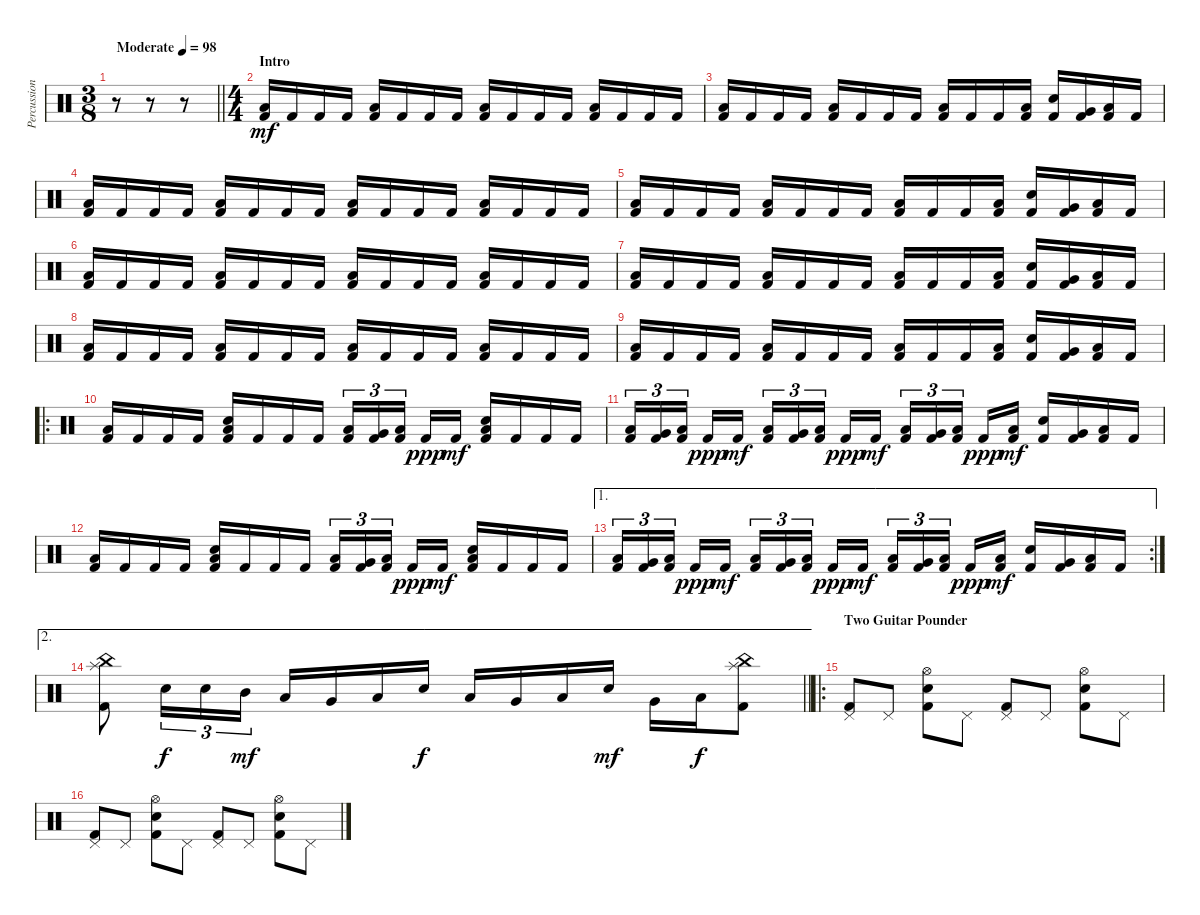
\track ("Percussion" "Percussion") {instrument percussion}
\staff {score}
\articulation defaults
\ts (3 8)
\tempo (98 "Moderate")
\clef neutral
\barLineRight lightlight
\ks c
r.8{dy mf} r.8 r.8 |
\ts (4 4)
\section ("" "Intro")
("Low Floor Tom (hit)" "Kick (hit) 2").16 "Kick (hit) 2".16 "Kick (hit) 2".16 "Kick (hit) 2".16 ("Low Floor Tom (hit)" "Kick (hit) 2").16 "Kick (hit) 2".16 "Kick (hit) 2".16 "Kick (hit) 2".16 ("Low Floor Tom (hit)" "Kick (hit) 2").16 "Kick (hit) 2".16 "Kick (hit) 2".16 "Kick (hit) 2".16 ("Low Floor Tom (hit)" "Kick (hit) 2").16 "Kick (hit) 2".16 "Kick (hit) 2".16 "Kick (hit) 2".16 |
("Low Floor Tom (hit)" "Kick (hit) 2").16 "Kick (hit) 2".16 "Kick (hit) 2".16 "Kick (hit) 2".16 ("Low Floor Tom (hit)" "Kick (hit) 2").16 "Kick (hit) 2".16 "Kick (hit) 2".16 "Kick (hit) 2".16 ("Low Floor Tom (hit)" "Kick (hit) 2").16 "Kick (hit) 2".16 "Kick (hit) 2".16 ("Low Floor Tom (hit)" "Kick (hit) 2").16 ("Snare (hit) 2" "Kick (hit) 2").16 ("Very Low Tom (hit)" "Kick (hit) 2").16 ("Low Floor Tom (hit)" "Kick (hit) 2").16 "Kick (hit) 2".16 |
("Low Floor Tom (hit)" "Kick (hit) 2").16 "Kick (hit) 2".16 "Kick (hit) 2".16 "Kick (hit) 2".16 ("Low Floor Tom (hit)" "Kick (hit) 2").16 "Kick (hit) 2".16 "Kick (hit) 2".16 "Kick (hit) 2".16 ("Low Floor Tom (hit)" "Kick (hit) 2").16 "Kick (hit) 2".16 "Kick (hit) 2".16 "Kick (hit) 2".16 ("Low Floor Tom (hit)" "Kick (hit) 2").16 "Kick (hit) 2".16 "Kick (hit) 2".16 "Kick (hit) 2".16 |
("Low Floor Tom (hit)" "Kick (hit) 2").16 "Kick (hit) 2".16 "Kick (hit) 2".16 "Kick (hit) 2".16 ("Low Floor Tom (hit)" "Kick (hit) 2").16 "Kick (hit) 2".16 "Kick (hit) 2".16 "Kick (hit) 2".16 ("Low Floor Tom (hit)" "Kick (hit) 2").16 "Kick (hit) 2".16 "Kick (hit) 2".16 ("Low Floor Tom (hit)" "Kick (hit) 2").16 ("Snare (hit) 2" "Kick (hit) 2").16 ("Very Low Tom (hit)" "Kick (hit) 2").16 ("Low Floor Tom (hit)" "Kick (hit) 2").16 "Kick (hit) 2".16 |
("Low Floor Tom (hit)" "Kick (hit) 2").16 "Kick (hit) 2".16 "Kick (hit) 2".16 "Kick (hit) 2".16 ("Low Floor Tom (hit)" "Kick (hit) 2").16 "Kick (hit) 2".16 "Kick (hit) 2".16 "Kick (hit) 2".16 ("Low Floor Tom (hit)" "Kick (hit) 2").16 "Kick (hit) 2".16 "Kick (hit) 2".16 "Kick (hit) 2".16 ("Low Floor Tom (hit)" "Kick (hit) 2").16 "Kick (hit) 2".16 "Kick (hit) 2".16 "Kick (hit) 2".16 |
("Low Floor Tom (hit)" "Kick (hit) 2").16 "Kick (hit) 2".16 "Kick (hit) 2".16 "Kick (hit) 2".16 ("Low Floor Tom (hit)" "Kick (hit) 2").16 "Kick (hit) 2".16 "Kick (hit) 2".16 "Kick (hit) 2".16 ("Low Floor Tom (hit)" "Kick (hit) 2").16 "Kick (hit) 2".16 "Kick (hit) 2".16 ("Low Floor Tom (hit)" "Kick (hit) 2").16 ("Snare (hit) 2" "Kick (hit) 2").16 ("Very Low Tom (hit)" "Kick (hit) 2").16 ("Low Floor Tom (hit)" "Kick (hit) 2").16 "Kick (hit) 2".16 |
("Low Floor Tom (hit)" "Kick (hit) 2").16 "Kick (hit) 2".16 "Kick (hit) 2".16 "Kick (hit) 2".16 ("Low Floor Tom (hit)" "Kick (hit) 2").16 "Kick (hit) 2".16 "Kick (hit) 2".16 "Kick (hit) 2".16 ("Low Floor Tom (hit)" "Kick (hit) 2").16 "Kick (hit) 2".16 "Kick (hit) 2".16 "Kick (hit) 2".16 ("Low Floor Tom (hit)" "Kick (hit) 2").16 "Kick (hit) 2".16 "Kick (hit) 2".16 "Kick (hit) 2".16 |
("Low Floor Tom (hit)" "Kick (hit) 2").16 "Kick (hit) 2".16 "Kick (hit) 2".16 "Kick (hit) 2".16 ("Low Floor Tom (hit)" "Kick (hit) 2").16 "Kick (hit) 2".16 "Kick (hit) 2".16 "Kick (hit) 2".16 ("Low Floor Tom (hit)" "Kick (hit) 2").16 "Kick (hit) 2".16 "Kick (hit) 2".16 ("Low Floor Tom (hit)" "Kick (hit) 2").16 ("Snare (hit) 2" "Kick (hit) 2").16 ("Very Low Tom (hit)" "Kick (hit) 2").16 ("Low Floor Tom (hit)" "Kick (hit) 2").16 "Kick (hit) 2".16 |
\ro
("Low Floor Tom (hit)" "Kick (hit) 2").16 "Kick (hit) 2".16 "Kick (hit) 2".16 "Kick (hit) 2".16 ("Snare (hit) 2" "Low Floor Tom (hit)" "Kick (hit) 2").16 "Kick (hit) 2".16 "Kick (hit) 2".16 "Kick (hit) 2".16 ("Low Tom (hit)" "Kick (hit) 2").16{tu (3 2)} ("Very Low Tom (hit)" "Kick (hit) 2").16{tu (3 2)} ("Low Floor Tom (hit)" "Kick (hit) 2").16{tu (3 2) beam splitsecondary} "Kick (hit) 2".16{dy ppp} "Kick (hit) 2".16{dy mf} ("Snare (hit) 2" "Low Floor Tom (hit)" "Kick (hit) 2").16 "Kick (hit) 2".16 "Kick (hit) 2".16 "Kick (hit) 2".16 |
("Low Tom (hit)" "Kick (hit) 2").16{tu (3 2)} ("Very Low Tom (hit)" "Kick (hit) 2").16{tu (3 2)} ("Low Floor Tom (hit)" "Kick (hit) 2").16{tu (3 2) beam splitsecondary} "Kick (hit) 2".16{dy ppp} "Kick (hit) 2".16{dy mf} ("Low Tom (hit)" "Kick (hit) 2").16{tu (3 2)} ("Very Low Tom (hit)" "Kick (hit) 2").16{tu (3 2)} ("Low Floor Tom (hit)" "Kick (hit) 2").16{tu (3 2) beam splitsecondary} "Kick (hit) 2".16{dy ppp} "Kick (hit) 2".16{dy mf} ("Low Tom (hit)" "Kick (hit) 2").16{tu (3 2)} ("Very Low Tom (hit)" "Kick (hit) 2").16{tu (3 2)} ("Low Floor Tom (hit)" "Kick (hit) 2").16{tu (3 2) beam splitsecondary} "Kick (hit) 2".16{dy ppp} ("Low Floor Tom (hit)" "Kick (hit) 2").16{dy mf} ("Snare (hit) 2" "Kick (hit) 2").16 ("Very Low Tom (hit)" "Kick (hit) 2").16 ("Low Floor Tom (hit)" "Kick (hit) 2").16 "Kick (hit) 2".16 |
("Low Floor Tom (hit)" "Kick (hit) 2").16 "Kick (hit) 2".16 "Kick (hit) 2".16 "Kick (hit) 2".16 ("Snare (hit) 2" "Low Floor Tom (hit)" "Kick (hit) 2").16 "Kick (hit) 2".16 "Kick (hit) 2".16 "Kick (hit) 2".16 ("Low Tom (hit)" "Kick (hit) 2").16{tu (3 2)} ("Very Low Tom (hit)" "Kick (hit) 2").16{tu (3 2)} ("Low Floor Tom (hit)" "Kick (hit) 2").16{tu (3 2) beam splitsecondary} "Kick (hit) 2".16{dy ppp} "Kick (hit) 2".16{dy mf} ("Snare (hit) 2" "Low Floor Tom (hit)" "Kick (hit) 2").16 "Kick (hit) 2".16 "Kick (hit) 2".16 "Kick (hit) 2".16 |
\ae 1
\rc 2
("Low Tom (hit)" "Kick (hit) 2").16{tu (3 2)} ("Very Low Tom (hit)" "Kick (hit) 2").16{tu (3 2)} ("Low Floor Tom (hit)" "Kick (hit) 2").16{tu (3 2) beam splitsecondary} "Kick (hit) 2".16{dy ppp} "Kick (hit) 2".16{dy mf} ("Low Tom (hit)" "Kick (hit) 2").16{tu (3 2)} ("Very Low Tom (hit)" "Kick (hit) 2").16{tu (3 2)} ("Low Floor Tom (hit)" "Kick (hit) 2").16{tu (3 2) beam splitsecondary} "Kick (hit) 2".16{dy ppp} "Kick (hit) 2".16{dy mf} ("Low Tom (hit)" "Kick (hit) 2").16{tu (3 2)} ("Very Low Tom (hit)" "Kick (hit) 2").16{tu (3 2)} ("Low Floor Tom (hit)" "Kick (hit) 2").16{tu (3 2) beam splitsecondary} "Kick (hit) 2".16{dy ppp} ("Low Floor Tom (hit)" "Kick (hit) 2").16{dy mf} ("Snare (hit) 2" "Kick (hit) 2").16 ("Very Low Tom (hit)" "Kick (hit) 2").16 ("Low Floor Tom (hit)" "Kick (hit) 2").16 "Kick (hit) 2".16 |
\ae 2
\barLineRight lightlight
("Splash (hit)" "China (hit)" "Kick (hit) 2").8 "Snare (hit) 2".16{tu (3 2) dy f} "Snare (hit) 2".16{tu (3 2)} "Mid Tom (hit)".16{tu (3 2) dy mf} "Low Tom (hit)".16 "Very Low Tom (hit)".16 "Low Floor Tom (hit)".16 "Snare (hit) 2".16{dy f} "Low Tom (hit)".16 "Very Low Tom (hit)".16 "Low Floor Tom (hit)".16 "Snare (hit) 2".16{dy mf} "Very Low Tom (hit)".16 "Low Floor Tom (hit)".16{dy f} ("Splash (hit)" "China (hit)" "Kick (hit) 2").8 |
\ro
\section ("" "Two Guitar Pounder")
("Pedal Hi-Hat (hit)" "Kick (hit) 2").8 "Pedal Hi-Hat (hit)".8 ("Hi-Hat (open)" "Snare (hit) 2" "Kick (hit) 2").8 "Pedal Hi-Hat (hit)".8 ("Pedal Hi-Hat (hit)" "Kick (hit) 2").8 "Pedal Hi-Hat (hit)".8 ("Hi-Hat (open)" "Snare (hit) 2" "Kick (hit) 2").8 "Pedal Hi-Hat (hit)".8 |
("Pedal Hi-Hat (hit)" "Kick (hit) 2").8 "Pedal Hi-Hat (hit)".8 ("Hi-Hat (open)" "Snare (hit) 2" "Kick (hit) 2").8 "Pedal Hi-Hat (hit)".8 ("Pedal Hi-Hat (hit)" "Kick (hit) 2").8 "Pedal Hi-Hat (hit)".8 ("Hi-Hat (open)" "Snare (hit) 2" "Kick (hit) 2").8 "Pedal Hi-Hat (hit)".8
